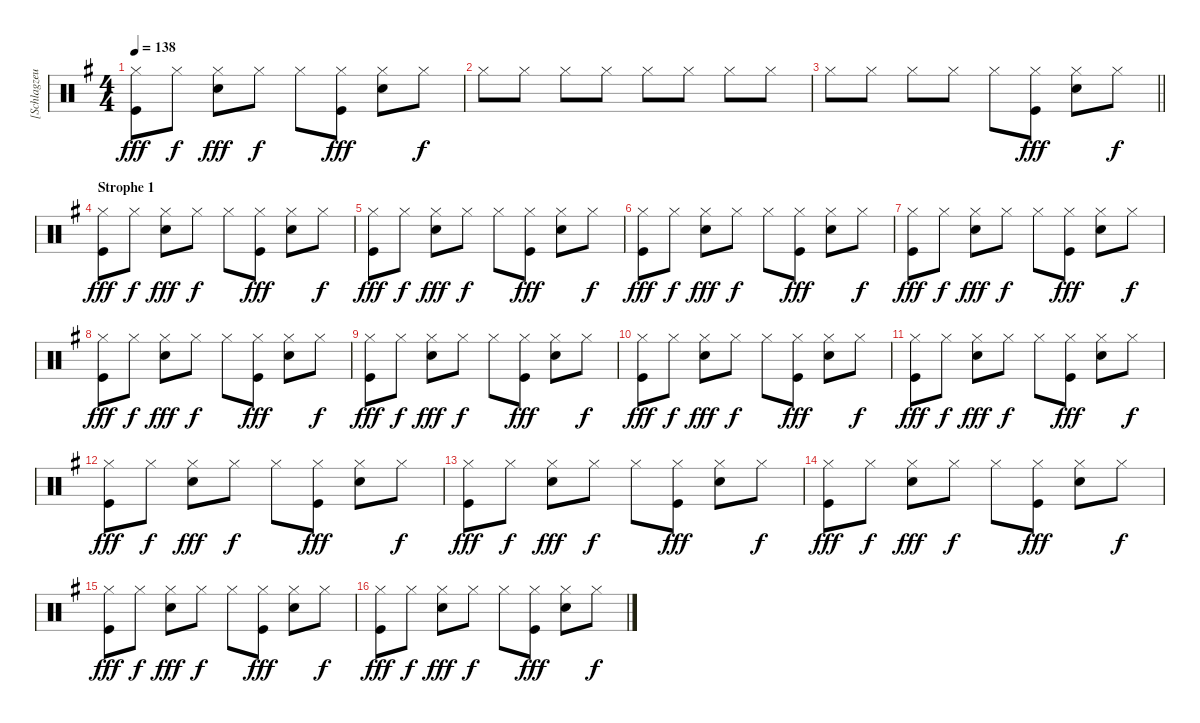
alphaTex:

\track ("[Schlagzeug]" "[Schlagzeu") {instrument percussion}
\staff {score}
\articulation defaults
\ts (4 4)
\tempo 138
\clef neutral
\ks eminor
("Hi-Hat (closed)" "Kick (hit)").8{dy fff} "Hi-Hat (closed)".8{dy f} ("Hi-Hat (closed)" "Electric Snare (hit)").8{dy fff} "Hi-Hat (closed)".8{dy f} "Hi-Hat (closed)".8 ("Hi-Hat (closed)" "Kick (hit)").8{dy fff} ("Hi-Hat (closed)" "Electric Snare (hit)").8 "Hi-Hat (closed)".8{dy f} |
"Hi-Hat (closed)".8 "Hi-Hat (closed)".8 "Hi-Hat (closed)".8 "Hi-Hat (closed)".8 "Hi-Hat (closed)".8 "Hi-Hat (closed)".8 "Hi-Hat (closed)".8 "Hi-Hat (closed)".8 |
\barLineRight lightlight "Hi-Hat (closed)".8 "Hi-Hat (closed)".8 "Hi-Hat (closed)".8 "Hi-Hat (closed)".8 "Hi-Hat (closed)".8
("Hi-Hat (closed)" "Kick (hit)").8{dy fff} ("Hi-Hat (closed)" "Electric Snare (hit)").8 "Hi-Hat (closed)".8{dy f} |
\section ("" "Strophe 1")
("Hi-Hat (closed)" "Kick (hit)").8{dy fff} "Hi-Hat (closed)".8{dy f} ("Hi-Hat (closed)" "Electric Snare (hit)").8{dy fff} "Hi-Hat (closed)".8{dy f} "Hi-Hat (closed)".8 ("Hi-Hat (closed)" "Kick (hit)").8{dy fff} ("Hi-Hat (closed)" "Electric Snare (hit)").8 "Hi-Hat (closed)".8{dy f} |
("Hi-Hat (closed)" "Kick (hit)").8{dy fff} "Hi-Hat (closed)".8{dy f} ("Hi-Hat (closed)" "Electric Snare (hit)").8{dy fff} "Hi-Hat (closed)".8{dy f} "Hi-Hat (closed)".8 ("Hi-Hat (closed)" "Kick (hit)").8{dy fff} ("Hi-Hat (closed)" "Electric Snare (hit)").8 "Hi-Hat (closed)".8{dy f} |
("Hi-Hat (closed)" "Kick (hit)").8{dy fff} "Hi-Hat (closed)".8{dy f} ("Hi-Hat (closed)" "Electric Snare (hit)").8{dy fff} "Hi-Hat (closed)".8{dy f} "Hi-Hat (closed)".8 ("Hi-Hat (closed)" "Kick (hit)").8{dy fff} ("Hi-Hat (closed)" "Electric Snare (hit)").8 "Hi-Hat (closed)".8{dy f} |
("Hi-Hat (closed)" "Kick (hit)").8{dy fff} "Hi-Hat (closed)".8{dy f} ("Hi-Hat (closed)" "Electric Snare (hit)").8{dy fff} "Hi-Hat (closed)".8{dy f} "Hi-Hat (closed)".8 ("Hi-Hat (closed)" "Kick (hit)").8{dy fff} ("Hi-Hat (closed)" "Electric Snare (hit)").8 "Hi-Hat (closed)".8{dy f} |
("Hi-Hat (closed)" "Kick (hit)").8{dy fff} "Hi-Hat (closed)".8{dy f} ("Hi-Hat (closed)" "Electric Snare (hit)").8{dy fff} "Hi-Hat (closed)".8{dy f} "Hi-Hat (closed)".8 ("Hi-Hat (closed)" "Kick (hit)").8{dy fff} ("Hi-Hat (closed)" "Electric Snare (hit)").8 "Hi-Hat (closed)".8{dy f} |
("Hi-Hat (closed)" "Kick (hit)").8{dy fff} "Hi-Hat (closed)".8{dy f} ("Hi-Hat (closed)" "Electric Snare (hit)").8{dy fff} "Hi-Hat (closed)".8{dy f} "Hi-Hat (closed)".8 ("Hi-Hat (closed)" "Kick (hit)").8{dy fff} ("Hi-Hat (closed)" "Electric Snare (hit)").8 "Hi-Hat (closed)".8{dy f} |
("Hi-Hat (closed)" "Kick (hit)").8{dy fff} "Hi-Hat (closed)".8{dy f} ("Hi-Hat (closed)" "Electric Snare (hit)").8{dy fff} "Hi-Hat (closed)".8{dy f} "Hi-Hat (closed)".8 ("Hi-Hat (closed)" "Kick (hit)").8{dy fff} ("Hi-Hat (closed)" "Electric Snare (hit)").8 "Hi-Hat (closed)".8{dy f} |
("Hi-Hat (closed)" "Kick (hit)").8{dy fff} "Hi-Hat (closed)".8{dy f} ("Hi-Hat (closed)" "Electric Snare (hit)").8{dy fff} "Hi-Hat (closed)".8{dy f} "Hi-Hat (closed)".8 ("Hi-Hat (closed)" "Kick (hit)").8{dy fff} ("Hi-Hat (closed)" "Electric Snare (hit)").8 "Hi-Hat (closed)".8{dy f} |
("Hi-Hat (closed)" "Kick (hit)").8{dy fff} "Hi-Hat (closed)".8{dy f} ("Hi-Hat (closed)" "Electric Snare (hit)").8{dy fff} "Hi-Hat (closed)".8{dy f} "Hi-Hat (closed)".8 ("Hi-Hat (closed)" "Kick (hit)").8{dy fff} ("Hi-Hat (closed)" "Electric Snare (hit)").8 "Hi-Hat (closed)".8{dy f} |
("Hi-Hat (closed)" "Kick (hit)").8{dy fff} "Hi-Hat (closed)".8{dy f} ("Hi-Hat (closed)" "Electric Snare (hit)").8{dy fff} "Hi-Hat (closed)".8{dy f} "Hi-Hat (closed)".8 ("Hi-Hat (closed)" "Kick (hit)").8{dy fff} ("Hi-Hat (closed)" "Electric Snare (hit)").8 "Hi-Hat (closed)".8{dy f} |
("Hi-Hat (closed)" "Kick (hit)").8{dy fff} "Hi-Hat (closed)".8{dy f} ("Hi-Hat (closed)" "Electric Snare (hit)").8{dy fff} "Hi-Hat (closed)".8{dy f} "Hi-Hat (closed)".8 ("Hi-Hat (closed)" "Kick (hit)").8{dy fff} ("Hi-Hat (closed)" "Electric Snare (hit)").8 "Hi-Hat (closed)".8{dy f} |
("Hi-Hat (closed)" "Kick (hit)").8{dy fff} "Hi-Hat (closed)".8{dy f} ("Hi-Hat (closed)" "Electric Snare (hit)").8{dy fff} "Hi-Hat (closed)".8{dy f} "Hi-Hat (closed)".8 ("Hi-Hat (closed)" "Kick (hit)").8{dy fff} ("Hi-Hat (closed)" "Electric Snare (hit)").8 "Hi-Hat (closed)".8{dy f} |
("Hi-Hat (closed)" "Kick (hit)").8{dy fff} "Hi-Hat (closed)".8{dy f} ("Hi-Hat (closed)" "Electric Snare (hit)").8{dy fff} "Hi-Hat (closed)".8{dy f} "Hi-Hat (closed)".8 ("Hi-Hat (closed)" "Kick (hit)").8{dy fff} ("Hi-Hat (closed)" "Electric Snare (hit)").8 "Hi-Hat (closed)".8{dy f}
